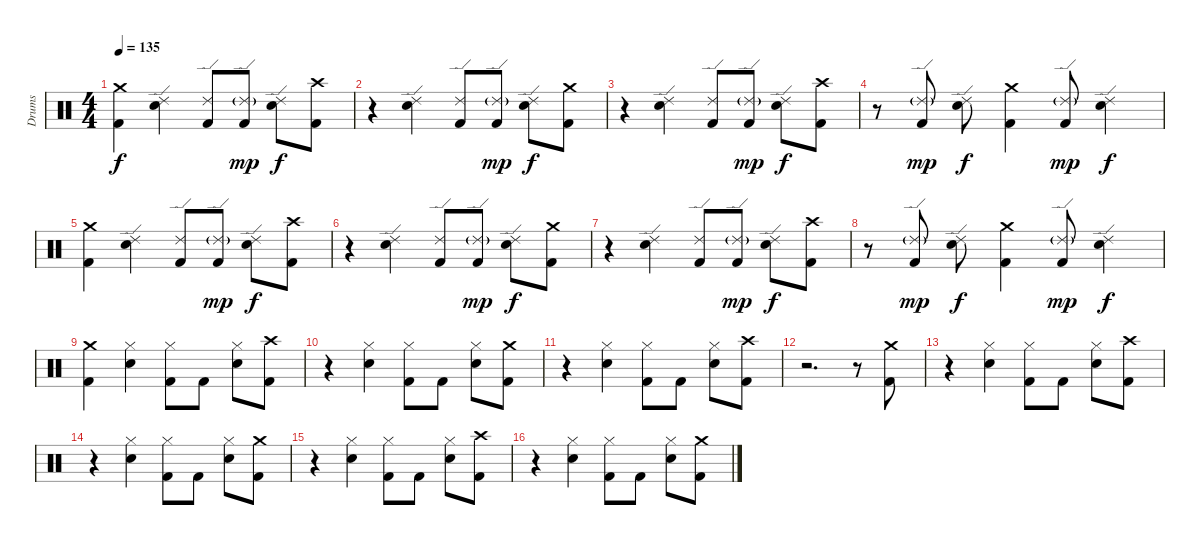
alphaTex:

\track ("Drums" "Drums") {instrument percussion}
\staff {score}
\articulation defaults
\ts (4 4)
\tempo 135
\clef neutral
\ks c
("Kick (hit) 2" "Crash medium (hit)").4{dy f} ("Ride (edge) 2" "Electric Snare (hit)").4 ("Ride (edge) 2" "Kick (hit) 2").8 ("Ride (edge) 2"{g} "Kick (hit) 2").8{dy mp} ("Ride (edge) 2" "Electric Snare (hit)").8{dy f} ("Crash high (hit)" "Kick (hit) 2").8 |
r.4 ("Ride (edge) 2" "Electric Snare (hit)").4 ("Ride (edge) 2" "Kick (hit) 2").8 ("Ride (edge) 2"{g} "Kick (hit) 2").8{dy mp} ("Ride (edge) 2" "Electric Snare (hit)").8{dy f} ("Crash medium (hit)" "Kick (hit) 2").8 |
r.4 ("Ride (edge) 2" "Electric Snare (hit)").4 ("Ride (edge) 2" "Kick (hit) 2").8 ("Ride (edge) 2"{g} "Kick (hit) 2").8{dy mp} ("Ride (edge) 2" "Electric Snare (hit)").8{dy f} ("Crash high (hit)" "Kick (hit) 2").8 |
r.8 ("Ride (edge) 2"{g} "Kick (hit) 2").8{dy mp} ("Ride (edge) 2" "Electric Snare (hit)").8{dy f} ("Crash medium (hit)" "Kick (hit) 2").4 ("Ride (edge) 2"{g} "Kick (hit) 2").8{dy mp} ("Electric Snare (hit)" "Ride (edge) 2").4{dy f} |
("Kick (hit) 2" "Crash medium (hit)").4 ("Ride (edge) 2" "Electric Snare (hit)").4 ("Ride (edge) 2" "Kick (hit) 2").8 ("Ride (edge) 2"{g} "Kick (hit) 2").8{dy mp} ("Ride (edge) 2" "Electric Snare (hit)").8{dy f} ("Crash high (hit)" "Kick (hit) 2").8 |
r.4 ("Ride (edge) 2" "Electric Snare (hit)").4 ("Ride (edge) 2" "Kick (hit) 2").8 ("Ride (edge) 2"{g} "Kick (hit) 2").8{dy mp} ("Ride (edge) 2" "Electric Snare (hit)").8{dy f} ("Crash medium (hit)" "Kick (hit) 2").8 |
r.4 ("Ride (edge) 2" "Electric Snare (hit)").4 ("Ride (edge) 2" "Kick (hit) 2").8 ("Ride (edge) 2"{g} "Kick (hit) 2").8{dy mp} ("Ride (edge) 2" "Electric Snare (hit)").8{dy f} ("Crash high (hit)" "Kick (hit) 2").8 |
r.8 ("Ride (edge) 2"{g} "Kick (hit) 2").8{dy mp} ("Ride (edge) 2" "Electric Snare (hit)").8{dy f} ("Crash medium (hit)" "Kick (hit) 2").4 ("Ride (edge) 2"{g} "Kick (hit) 2").8{dy mp} ("Electric Snare (hit)" "Ride (edge) 2").4{dy f} |
("Kick (hit) 2" "Crash medium (hit)").4 ("Hi-Hat (closed)" "Electric Snare (hit)").4 ("Hi-Hat (closed)" "Kick (hit) 2").8 "Kick (hit) 2".8 ("Hi-Hat (closed)" "Electric Snare (hit)").8 ("Crash high (hit)" "Kick (hit) 2").8 |
r.4 ("Hi-Hat (closed)" "Electric Snare (hit)").4 ("Hi-Hat (closed)" "Kick (hit) 2").8 "Kick (hit) 2".8 ("Hi-Hat (closed)" "Electric Snare (hit)").8 ("Crash medium (hit)" "Kick (hit) 2").8 |
r.4 ("Hi-Hat (closed)" "Electric Snare (hit)").4 ("Hi-Hat (closed)" "Kick (hit) 2").8 "Kick (hit) 2".8 ("Hi-Hat (closed)" "Electric Snare (hit)").8 ("Crash high (hit)" "Kick (hit) 2").8 |
r.2{d} r.8 ("Crash medium (hit)" "Kick (hit) 2").8 |
r.4 ("Hi-Hat (closed)" "Electric Snare (hit)").4 ("Hi-Hat (closed)" "Kick (hit) 2").8 "Kick (hit) 2".8 ("Hi-Hat (closed)" "Electric Snare (hit)").8 ("Crash high (hit)" "Kick (hit) 2").8 |
r.4 ("Hi-Hat (closed)" "Electric Snare (hit)").4 ("Hi-Hat (closed)" "Kick (hit) 2").8 "Kick (hit) 2".8 ("Hi-Hat (closed)" "Electric Snare (hit)").8 ("Crash medium (hit)" "Kick (hit) 2").8 |
r.4 ("Hi-Hat (closed)" "Electric Snare (hit)").4 ("Hi-Hat (closed)" "Kick (hit) 2").8 "Kick (hit) 2".8 ("Hi-Hat (closed)" "Electric Snare (hit)").8 ("Crash high (hit)" "Kick (hit) 2").8 |
r.4 ("Hi-Hat (closed)" "Electric Snare (hit)").4 ("Hi-Hat (closed)" "Kick (hit) 2").8 "Kick (hit) 2".8 ("Hi-Hat (closed)" "Electric Snare (hit)").8 ("Crash medium (hit)" "Kick (hit) 2").8
